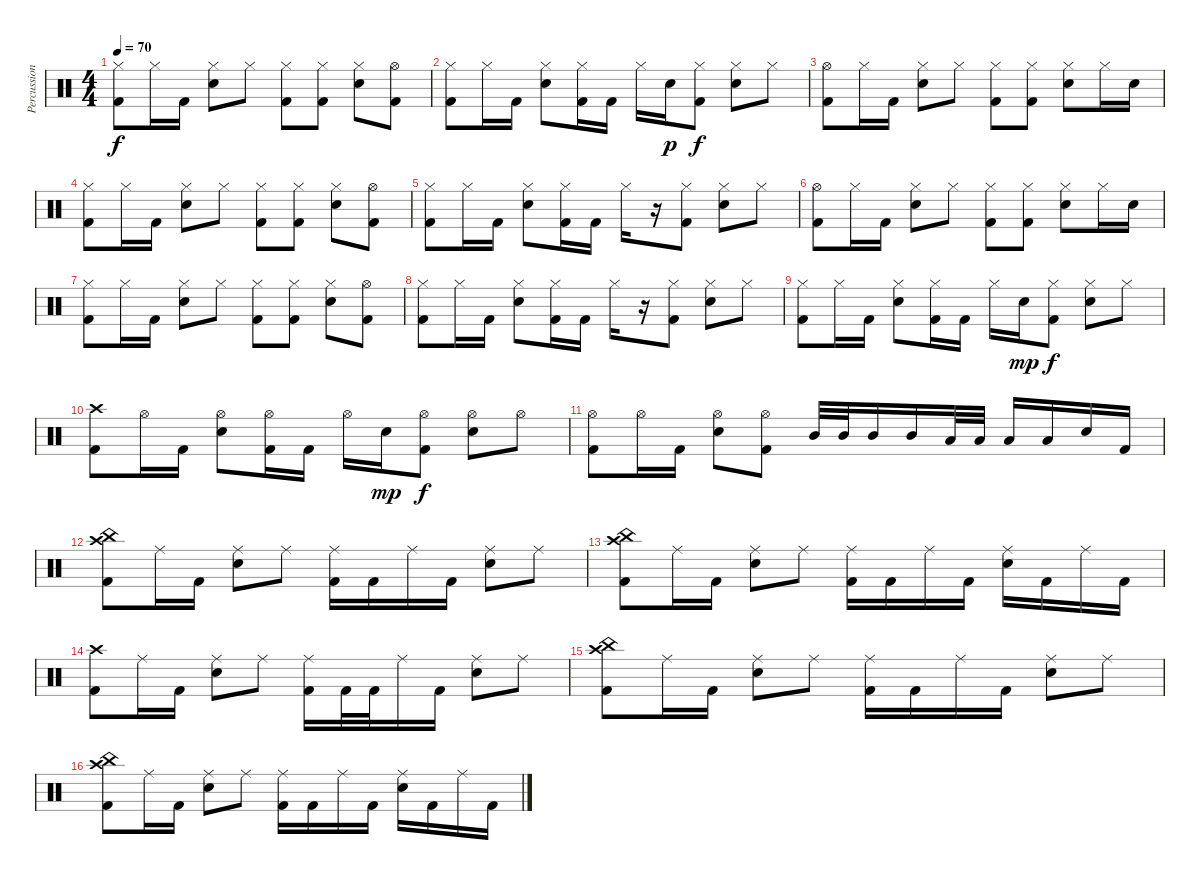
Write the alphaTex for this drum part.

\track ("Percussion" "Percussion") {instrument percussion}
\staff {score}
\articulation defaults
\ts (4 4)
\tempo 70
\clef neutral
\ks c
("Hi-Hat (closed)" "Kick (hit) 2").8{dy f} "Hi-Hat (closed)".16 "Kick (hit) 2".16 ("Hi-Hat (closed)" "Snare (hit) 2").8 "Hi-Hat (closed)".8 ("Hi-Hat (closed)" "Kick (hit) 2").8 ("Hi-Hat (closed)" "Kick (hit) 2").8 ("Hi-Hat (closed)" "Snare (hit) 2").8 ("Hi-Hat (open)" "Kick (hit) 2").8 |
("Hi-Hat (closed)" "Kick (hit) 2").8 "Hi-Hat (closed)".16 "Kick (hit) 2".16 ("Hi-Hat (closed)" "Snare (hit) 2").8 ("Hi-Hat (closed)" "Kick (hit) 2").16 "Kick (hit) 2".16 "Hi-Hat (closed)".16 "Snare (hit) 2".16{dy p} ("Hi-Hat (closed)" "Kick (hit) 2").8{dy f} ("Hi-Hat (closed)" "Snare (hit) 2").8 "Hi-Hat (closed)".8 |
("Hi-Hat (open)" "Kick (hit) 2").8 "Hi-Hat (closed)".16 "Kick (hit) 2".16 ("Hi-Hat (closed)" "Snare (hit) 2").8 "Hi-Hat (closed)".8 ("Hi-Hat (closed)" "Kick (hit) 2").8 ("Hi-Hat (closed)" "Kick (hit) 2").8 ("Hi-Hat (closed)" "Snare (hit) 2").8 "Hi-Hat (closed)".16 "Snare (hit) 2".16 |
("Hi-Hat (closed)" "Kick (hit) 2").8 "Hi-Hat (closed)".16 "Kick (hit) 2".16 ("Hi-Hat (closed)" "Snare (hit) 2").8 "Hi-Hat (closed)".8 ("Hi-Hat (closed)" "Kick (hit) 2").8 ("Hi-Hat (closed)" "Kick (hit) 2").8 ("Hi-Hat (closed)" "Snare (hit) 2").8 ("Hi-Hat (open)" "Kick (hit) 2").8 |
("Hi-Hat (closed)" "Kick (hit) 2").8 "Hi-Hat (closed)".16 "Kick (hit) 2".16 ("Hi-Hat (closed)" "Snare (hit) 2").8 ("Hi-Hat (closed)" "Kick (hit) 2").16 "Kick (hit) 2".16 "Hi-Hat (closed)".16 r.16 ("Hi-Hat (closed)" "Kick (hit) 2").8 ("Hi-Hat (closed)" "Snare (hit) 2").8 "Hi-Hat (closed)".8 |
("Hi-Hat (open)" "Kick (hit) 2").8 "Hi-Hat (closed)".16 "Kick (hit) 2".16 ("Hi-Hat (closed)" "Snare (hit) 2").8 "Hi-Hat (closed)".8 ("Hi-Hat (closed)" "Kick (hit) 2").8 ("Hi-Hat (closed)" "Kick (hit) 2").8 ("Hi-Hat (closed)" "Snare (hit) 2").8 "Hi-Hat (closed)".16 "Snare (hit) 2".16 |
("Hi-Hat (closed)" "Kick (hit) 2").8 "Hi-Hat (closed)".16 "Kick (hit) 2".16 ("Hi-Hat (closed)" "Snare (hit) 2").8 "Hi-Hat (closed)".8 ("Hi-Hat (closed)" "Kick (hit) 2").8 ("Hi-Hat (closed)" "Kick (hit) 2").8 ("Hi-Hat (closed)" "Snare (hit) 2").8 ("Hi-Hat (open)" "Kick (hit) 2").8 |
("Hi-Hat (closed)" "Kick (hit) 2").8 "Hi-Hat (closed)".16 "Kick (hit) 2".16 ("Hi-Hat (closed)" "Snare (hit) 2").8 ("Hi-Hat (closed)" "Kick (hit) 2").16 "Kick (hit) 2".16 "Hi-Hat (closed)".16 r.16 ("Hi-Hat (closed)" "Kick (hit) 2").8 ("Hi-Hat (closed)" "Snare (hit) 2").8 "Hi-Hat (closed)".8 |
("Hi-Hat (closed)" "Kick (hit) 2").8 "Hi-Hat (closed)".16 "Kick (hit) 2".16 ("Hi-Hat (closed)" "Snare (hit) 2").8 ("Hi-Hat (closed)" "Kick (hit) 2").16 "Kick (hit) 2".16 "Hi-Hat (closed)".16 "Snare (hit) 2".16{dy mp} ("Hi-Hat (closed)" "Kick (hit) 2").8{dy f} ("Hi-Hat (closed)" "Snare (hit) 2").8 "Hi-Hat (closed)".8 |
("Crash high (hit)" "Kick (hit) 2").8 "Hi-Hat (open)".16 "Kick (hit) 2".16 ("Hi-Hat (open)" "Snare (hit) 2").8 ("Hi-Hat (open)" "Kick (hit) 2").16 "Kick (hit) 2".16 "Hi-Hat (open)".16 "Snare (hit) 2".16{dy mp} ("Hi-Hat (open)" "Kick (hit) 2").8{dy f} ("Hi-Hat (open)" "Snare (hit) 2").8 "Hi-Hat (open)".8 |
("Hi-Hat (open)" "Kick (hit) 2").8 "Hi-Hat (open)".16 "Kick (hit) 2".16 ("Hi-Hat (open)" "Snare (hit) 2").8 ("Hi-Hat (open)" "Kick (hit) 2").8 "Mid Tom (hit)".32 "Mid Tom (hit)".32 "Mid Tom (hit)".16 "Mid Tom (hit)".16 "Low Tom (hit)".32 "Low Tom (hit)".32 "Low Tom (hit)".16 "Low Tom (hit)".16 "Snare (hit) 2".16 "Kick (hit) 2".16 |
("Crash high (hit)" "China (hit)" "Kick (hit) 2").8 "Ride (middle)".16 "Kick (hit) 2".16 ("Ride (middle)" "Snare (hit) 2").8 "Ride (middle)".8 ("Ride (middle)" "Kick (hit) 2").16 "Kick (hit) 2".16 "Ride (middle)".16 "Kick (hit) 2".16 ("Ride (middle)" "Snare (hit) 2").8 "Ride (middle)".8 |
("Crash high (hit)" "China (hit)" "Kick (hit) 2").8 "Ride (middle)".16 "Kick (hit) 2".16 ("Ride (middle)" "Snare (hit) 2").8 "Ride (middle)".8 ("Ride (middle)" "Kick (hit) 2").16 "Kick (hit) 2".16 "Ride (middle)".16 "Kick (hit) 2".16 ("Ride (middle)" "Snare (hit) 2").16 "Kick (hit) 2".16 "Ride (middle)".16 "Kick (hit) 2".16 |
("Crash high (hit)" "Kick (hit) 2").8 "Ride (middle)".16 "Kick (hit) 2".16 ("Ride (middle)" "Snare (hit) 2").8 "Ride (middle)".8 ("Ride (middle)" "Kick (hit) 2").16 "Kick (hit) 2".32 "Kick (hit) 2".32 "Ride (middle)".16 "Kick (hit) 2".16 ("Ride (middle)" "Snare (hit) 2").8 "Ride (middle)".8 |
("Crash high (hit)" "China (hit)" "Kick (hit) 2").8 "Ride (middle)".16 "Kick (hit) 2".16 ("Ride (middle)" "Snare (hit) 2").8 "Ride (middle)".8 ("Ride (middle)" "Kick (hit) 2").16 "Kick (hit) 2".16 "Ride (middle)".16 "Kick (hit) 2".16 ("Ride (middle)" "Snare (hit) 2").8 "Ride (middle)".8 |
("Crash high (hit)" "China (hit)" "Kick (hit) 2").8 "Ride (middle)".16 "Kick (hit) 2".16 ("Ride (middle)" "Snare (hit) 2").8 "Ride (middle)".8 ("Ride (middle)" "Kick (hit) 2").16 "Kick (hit) 2".16 "Ride (middle)".16 "Kick (hit) 2".16 ("Ride (middle)" "Snare (hit) 2").16 "Kick (hit) 2".16 "Ride (middle)".16 "Kick (hit) 2".16
